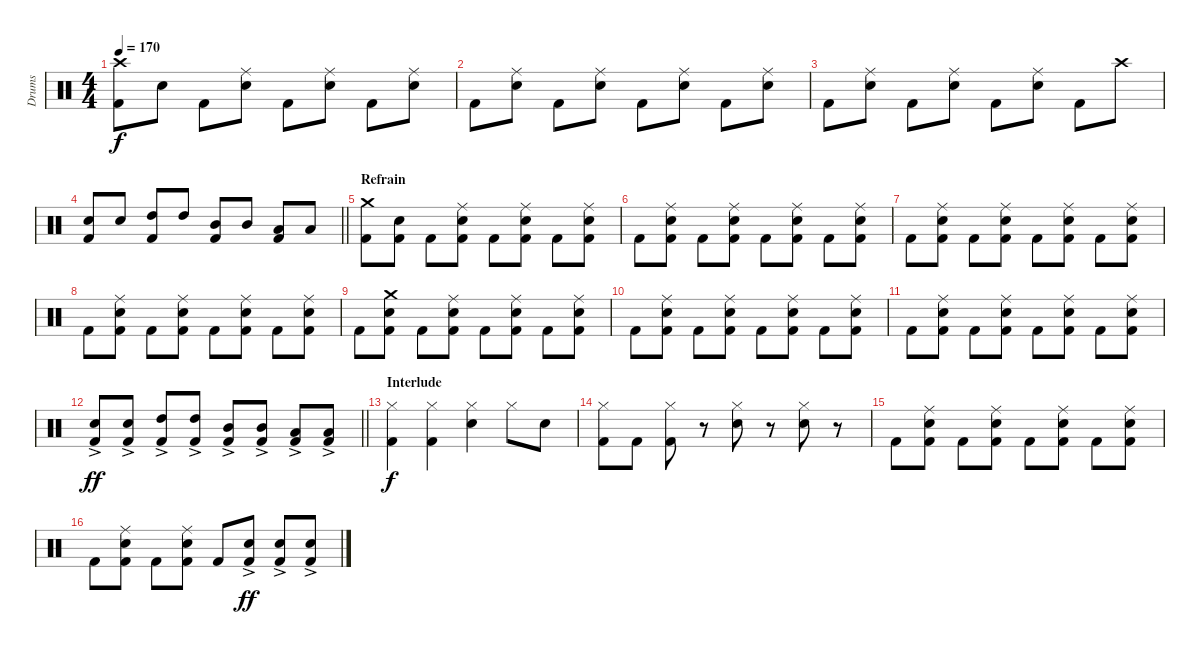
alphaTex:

\track ("Drums" "Drums") {instrument percussion}
\staff {score}
\articulation defaults
\ts (4 4)
\tempo 170
\clef neutral
\ks c
("Crash high (hit)" "Kick (hit) 2").8{dy f} "Snare (hit) 2".8 "Kick (hit) 2".8 ("Ride (middle)" "Snare (hit) 2").8 "Kick (hit) 2".8 ("Ride (middle)" "Snare (hit) 2").8 "Kick (hit) 2".8 ("Ride (middle)" "Snare (hit) 2").8 |
"Kick (hit) 2".8 ("Ride (middle)" "Snare (hit) 2").8 "Kick (hit) 2".8 ("Ride (middle)" "Snare (hit) 2").8 "Kick (hit) 2".8 ("Ride (middle)" "Snare (hit) 2").8 "Kick (hit) 2".8 ("Ride (middle)" "Snare (hit) 2").8 |
"Kick (hit) 2".8 ("Ride (middle)" "Snare (hit) 2").8 "Kick (hit) 2".8 ("Ride (middle)" "Snare (hit) 2").8 "Kick (hit) 2".8 ("Ride (middle)" "Snare (hit) 2").8 "Kick (hit) 2".8 "Crash high (hit)".8 |
\barLineRight lightlight
("Snare (hit) 2" "Kick (hit) 2").8 "Snare (hit) 2".8 ("High Tom (hit)" "Kick (hit) 2").8 "High Tom (hit)".8 ("Mid Tom (hit)" "Kick (hit) 2").8 "Mid Tom (hit)".8 ("Low Tom (hit)" "Kick (hit) 2").8 "Low Tom (hit)".8 |
\section ("" "Refrain")
("Crash medium (hit)" "Kick (hit) 2").8 ("Snare (hit) 2" "Kick (hit) 2").8 "Kick (hit) 2".8 ("Ride (middle)" "Snare (hit) 2" "Kick (hit) 2").8 "Kick (hit) 2".8 ("Ride (middle)" "Snare (hit) 2" "Kick (hit) 2").8 "Kick (hit) 2".8 ("Ride (middle)" "Snare (hit) 2" "Kick (hit) 2").8 |
"Kick (hit) 2".8 ("Ride (middle)" "Snare (hit) 2" "Kick (hit) 2").8 "Kick (hit) 2".8 ("Ride (middle)" "Snare (hit) 2" "Kick (hit) 2").8 "Kick (hit) 2".8 ("Ride (middle)" "Snare (hit) 2" "Kick (hit) 2").8 "Kick (hit) 2".8 ("Ride (middle)" "Snare (hit) 2" "Kick (hit) 2").8 |
"Kick (hit) 2".8 ("Ride (middle)" "Snare (hit) 2" "Kick (hit) 2").8 "Kick (hit) 2".8 ("Ride (middle)" "Snare (hit) 2" "Kick (hit) 2").8 "Kick (hit) 2".8 ("Ride (middle)" "Snare (hit) 2" "Kick (hit) 2").8 "Kick (hit) 2".8 ("Ride (middle)" "Snare (hit) 2" "Kick (hit) 2").8 |
"Kick (hit) 2".8 ("Ride (middle)" "Snare (hit) 2" "Kick (hit) 2").8 "Kick (hit) 2".8 ("Ride (middle)" "Snare (hit) 2" "Kick (hit) 2").8 "Kick (hit) 2".8 ("Ride (middle)" "Snare (hit) 2" "Kick (hit) 2").8 "Kick (hit) 2".8 ("Ride (middle)" "Snare (hit) 2" "Kick (hit) 2").8 |
"Kick (hit) 2".8 ("Crash medium (hit)" "Snare (hit) 2" "Kick (hit) 2").8 "Kick (hit) 2".8 ("Ride (middle)" "Snare (hit) 2" "Kick (hit) 2").8 "Kick (hit) 2".8 ("Ride (middle)" "Snare (hit) 2" "Kick (hit) 2").8 "Kick (hit) 2".8 ("Ride (middle)" "Snare (hit) 2" "Kick (hit) 2").8 |
"Kick (hit) 2".8 ("Ride (middle)" "Snare (hit) 2" "Kick (hit) 2").8 "Kick (hit) 2".8 ("Ride (middle)" "Snare (hit) 2" "Kick (hit) 2").8 "Kick (hit) 2".8 ("Ride (middle)" "Snare (hit) 2" "Kick (hit) 2").8 "Kick (hit) 2".8 ("Ride (middle)" "Snare (hit) 2" "Kick (hit) 2").8 |
"Kick (hit) 2".8 ("Ride (middle)" "Snare (hit) 2" "Kick (hit) 2").8 "Kick (hit) 2".8 ("Ride (middle)" "Snare (hit) 2" "Kick (hit) 2").8 "Kick (hit) 2".8 ("Ride (middle)" "Snare (hit) 2" "Kick (hit) 2").8 "Kick (hit) 2".8 ("Ride (middle)" "Snare (hit) 2" "Kick (hit) 2").8 |
\barLineRight lightlight
("Snare (hit) 2"{ac} "Kick (hit) 2").8{dy ff} ("Snare (hit) 2"{ac} "Kick (hit) 2").8 ("High Tom (hit)"{ac} "Kick (hit) 2").8 ("High Tom (hit)"{ac} "Kick (hit) 2").8 ("Mid Tom (hit)"{ac} "Kick (hit) 2").8 ("Mid Tom (hit)"{ac} "Kick (hit) 2").8 ("Low Tom (hit)"{ac} "Kick (hit) 2").8 ("Low Tom (hit)"{ac} "Kick (hit) 2").8 |
\section ("" "Interlude")
("Hi-Hat (closed)" "Kick (hit) 2").4{dy f} ("Hi-Hat (closed)" "Kick (hit) 2").4 ("Hi-Hat (closed)" "Snare (hit) 2").4 "Hi-Hat (closed)".8 "Snare (hit) 2".8 |
("Hi-Hat (closed)" "Kick (hit) 2").8 "Kick (hit) 2".8 ("Hi-Hat (closed)" "Kick (hit) 2").8 r.8 ("Hi-Hat (closed)" "Snare (hit) 2").8 r.8 ("Hi-Hat (closed)" "Snare (hit) 2").8 r.8 |
"Kick (hit) 2".8 ("Ride (middle)" "Snare (hit) 2" "Kick (hit) 2").8 "Kick (hit) 2".8 ("Ride (middle)" "Snare (hit) 2" "Kick (hit) 2").8 "Kick (hit) 2".8 ("Ride (middle)" "Snare (hit) 2" "Kick (hit) 2").8 "Kick (hit) 2".8 ("Ride (middle)" "Snare (hit) 2" "Kick (hit) 2").8 |
"Kick (hit) 2".8 ("Ride (middle)" "Snare (hit) 2" "Kick (hit) 2").8 "Kick (hit) 2".8 ("Ride (middle)" "Snare (hit) 2" "Kick (hit) 2").8 "Kick (hit) 2".8 ("Snare (hit) 2"{ac} "Kick (hit) 2").8{dy ff} ("Snare (hit) 2"{ac} "Kick (hit) 2").8 ("Snare (hit) 2"{ac} "Kick (hit) 2").8
